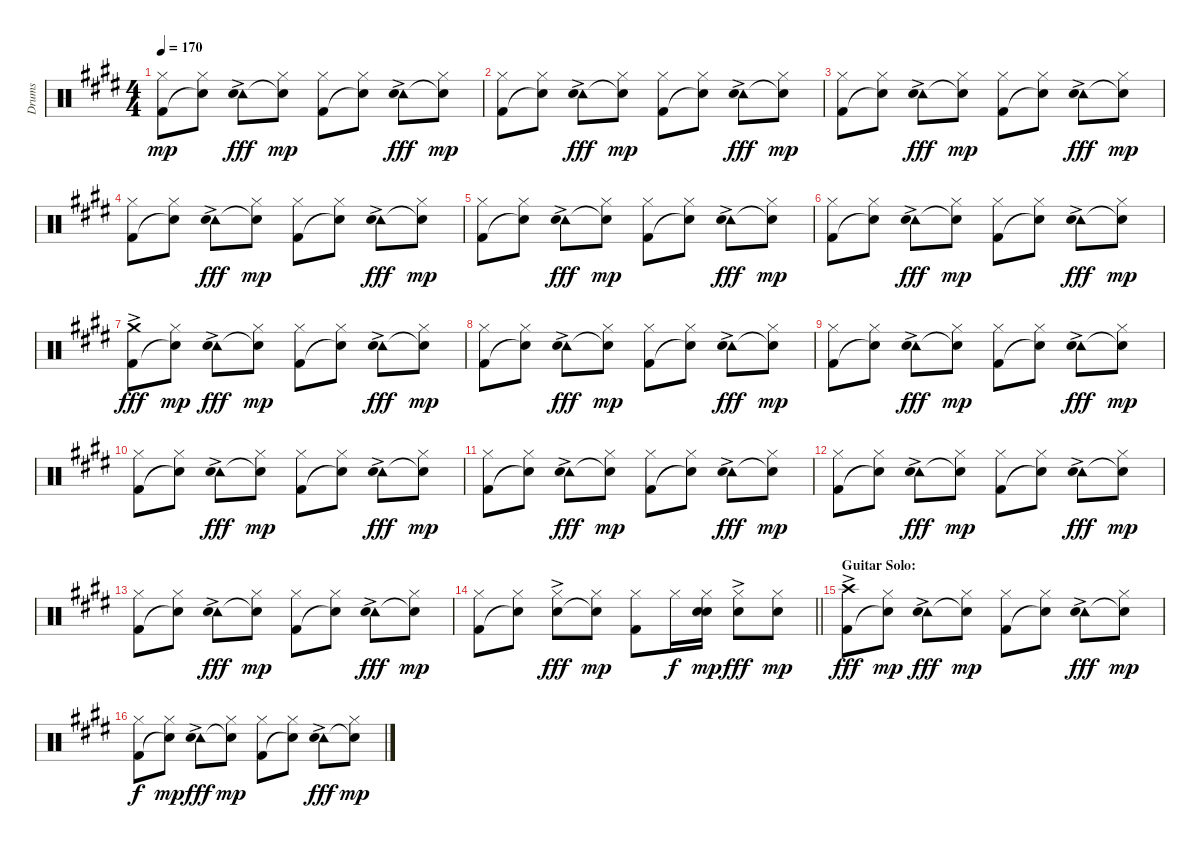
\track ("Drums" "Drums") {instrument percussion}
\staff {score}
\articulation defaults
\ts (4 4)
\tempo 170
\clef neutral
\ks c#minor
("Hi-Hat (closed)" "Kick (hit) 2").8{dy mp} ("Hi-Hat (closed)" "Snare (hit)"{t}).8 ("Tambourine (hit)"{ac} "Hand Clap (hit)").8{dy fff} ("Hi-Hat (closed)" "Snare (hit)"{t}).8{dy mp} ("Hi-Hat (closed)" "Kick (hit) 2").8 ("Hi-Hat (closed)" "Snare (hit)"{t}).8 ("Tambourine (hit)"{ac} "Hand Clap (hit)").8{dy fff} ("Hi-Hat (closed)" "Snare (hit)"{t}).8{dy mp} |
("Hi-Hat (closed)" "Kick (hit) 2").8 ("Hi-Hat (closed)" "Snare (hit)"{t}).8 ("Tambourine (hit)"{ac} "Hand Clap (hit)").8{dy fff} ("Hi-Hat (closed)" "Snare (hit)"{t}).8{dy mp} ("Hi-Hat (closed)" "Kick (hit) 2").8 ("Hi-Hat (closed)" "Snare (hit)"{t}).8 ("Tambourine (hit)"{ac} "Hand Clap (hit)").8{dy fff} ("Hi-Hat (closed)" "Snare (hit)"{t}).8{dy mp} |
("Hi-Hat (closed)" "Kick (hit) 2").8 ("Hi-Hat (closed)" "Snare (hit)"{t}).8 ("Tambourine (hit)"{ac} "Hand Clap (hit)").8{dy fff} ("Hi-Hat (closed)" "Snare (hit)"{t}).8{dy mp} ("Hi-Hat (closed)" "Kick (hit) 2").8 ("Hi-Hat (closed)" "Snare (hit)"{t}).8 ("Tambourine (hit)"{ac} "Hand Clap (hit)").8{dy fff} ("Hi-Hat (closed)" "Snare (hit)"{t}).8{dy mp} |
("Hi-Hat (closed)" "Kick (hit) 2").8 ("Hi-Hat (closed)" "Snare (hit)"{t}).8 ("Tambourine (hit)"{ac} "Hand Clap (hit)").8{dy fff} ("Hi-Hat (closed)" "Snare (hit)"{t}).8{dy mp} ("Hi-Hat (closed)" "Kick (hit) 2").8 ("Hi-Hat (closed)" "Snare (hit)"{t}).8 ("Tambourine (hit)"{ac} "Hand Clap (hit)").8{dy fff} ("Hi-Hat (closed)" "Snare (hit)"{t}).8{dy mp} |
("Hi-Hat (closed)" "Kick (hit) 2").8 ("Hi-Hat (closed)" "Snare (hit)"{t}).8 ("Tambourine (hit)"{ac} "Hand Clap (hit)").8{dy fff} ("Hi-Hat (closed)" "Snare (hit)"{t}).8{dy mp} ("Hi-Hat (closed)" "Kick (hit) 2").8 ("Hi-Hat (closed)" "Snare (hit)"{t}).8 ("Tambourine (hit)"{ac} "Hand Clap (hit)").8{dy fff} ("Hi-Hat (closed)" "Snare (hit)"{t}).8{dy mp} |
("Hi-Hat (closed)" "Kick (hit) 2").8 ("Hi-Hat (closed)" "Snare (hit)"{t}).8 ("Tambourine (hit)"{ac} "Hand Clap (hit)").8{dy fff} ("Hi-Hat (closed)" "Snare (hit)"{t}).8{dy mp} ("Hi-Hat (closed)" "Kick (hit) 2").8 ("Hi-Hat (closed)" "Snare (hit)"{t}).8 ("Tambourine (hit)"{ac} "Hand Clap (hit)").8{dy fff} ("Hi-Hat (closed)" "Snare (hit)"{t}).8{dy mp} |
("Crash medium (hit)"{ac} "Kick (hit) 2").8{dy fff} ("Hi-Hat (closed)" "Snare (hit)"{t}).8{dy mp} ("Tambourine (hit)"{ac} "Hand Clap (hit)").8{dy fff} ("Hi-Hat (closed)" "Snare (hit)"{t}).8{dy mp} ("Hi-Hat (closed)" "Kick (hit) 2").8 ("Hi-Hat (closed)" "Snare (hit)"{t}).8 ("Tambourine (hit)"{ac} "Hand Clap (hit)").8{dy fff} ("Hi-Hat (closed)" "Snare (hit)"{t}).8{dy mp} |
("Hi-Hat (closed)" "Kick (hit) 2").8 ("Hi-Hat (closed)" "Snare (hit)"{t}).8 ("Tambourine (hit)"{ac} "Hand Clap (hit)").8{dy fff} ("Hi-Hat (closed)" "Snare (hit)"{t}).8{dy mp} ("Hi-Hat (closed)" "Kick (hit) 2").8 ("Hi-Hat (closed)" "Snare (hit)"{t}).8 ("Tambourine (hit)"{ac} "Hand Clap (hit)").8{dy fff} ("Hi-Hat (closed)" "Snare (hit)"{t}).8{dy mp} |
("Hi-Hat (closed)" "Kick (hit) 2").8 ("Hi-Hat (closed)" "Snare (hit)"{t}).8 ("Tambourine (hit)"{ac} "Hand Clap (hit)").8{dy fff} ("Hi-Hat (closed)" "Snare (hit)"{t}).8{dy mp} ("Hi-Hat (closed)" "Kick (hit) 2").8 ("Hi-Hat (closed)" "Snare (hit)"{t}).8 ("Tambourine (hit)"{ac} "Hand Clap (hit)").8{dy fff} ("Hi-Hat (closed)" "Snare (hit)"{t}).8{dy mp} |
("Hi-Hat (closed)" "Kick (hit) 2").8 ("Hi-Hat (closed)" "Snare (hit)"{t}).8 ("Tambourine (hit)"{ac} "Hand Clap (hit)").8{dy fff} ("Hi-Hat (closed)" "Snare (hit)"{t}).8{dy mp} ("Hi-Hat (closed)" "Kick (hit) 2").8 ("Hi-Hat (closed)" "Snare (hit)"{t}).8 ("Tambourine (hit)"{ac} "Hand Clap (hit)").8{dy fff} ("Hi-Hat (closed)" "Snare (hit)"{t}).8{dy mp} |
("Hi-Hat (closed)" "Kick (hit) 2").8 ("Hi-Hat (closed)" "Snare (hit)"{t}).8 ("Tambourine (hit)"{ac} "Hand Clap (hit)").8{dy fff} ("Hi-Hat (closed)" "Snare (hit)"{t}).8{dy mp} ("Hi-Hat (closed)" "Kick (hit) 2").8 ("Hi-Hat (closed)" "Snare (hit)"{t}).8 ("Tambourine (hit)"{ac} "Hand Clap (hit)").8{dy fff} ("Hi-Hat (closed)" "Snare (hit)"{t}).8{dy mp} |
("Hi-Hat (closed)" "Kick (hit) 2").8 ("Hi-Hat (closed)" "Snare (hit)"{t}).8 ("Tambourine (hit)"{ac} "Hand Clap (hit)").8{dy fff} ("Hi-Hat (closed)" "Snare (hit)"{t}).8{dy mp} ("Hi-Hat (closed)" "Kick (hit) 2").8 ("Hi-Hat (closed)" "Snare (hit)"{t}).8 ("Tambourine (hit)"{ac} "Hand Clap (hit)").8{dy fff} ("Hi-Hat (closed)" "Snare (hit)"{t}).8{dy mp} |
("Hi-Hat (closed)" "Kick (hit) 2").8 ("Hi-Hat (closed)" "Snare (hit)"{t}).8 ("Tambourine (hit)"{ac} "Hand Clap (hit)").8{dy fff} ("Hi-Hat (closed)" "Snare (hit)"{t}).8{dy mp} ("Hi-Hat (closed)" "Kick (hit) 2").8 ("Hi-Hat (closed)" "Snare (hit)"{t}).8 ("Tambourine (hit)"{ac} "Hand Clap (hit)").8{dy fff} ("Hi-Hat (closed)" "Snare (hit)"{t}).8{dy mp} |
\barLineRight lightlight
("Hi-Hat (closed)" "Kick (hit) 2").8 ("Hi-Hat (closed)" "Snare (hit)"{t}).8 ("Hi-Hat (closed)"{ac} "Hand Clap (hit)").8{dy fff} ("Hi-Hat (closed)" "Snare (hit)"{t}).8{dy mp} ("Hi-Hat (closed)" "Kick (hit) 2").8 "Hi-Hat (closed)".16{dy f} ("Hi-Hat (closed)" "Hand Clap (hit)" "Snare (hit)").16{dy mp} ("Hi-Hat (closed)"{ac} "Hand Clap (hit)").8{dy fff} ("Hi-Hat (closed)" "Hand Clap (hit)").8{dy mp} |
\section ("" "Guitar Solo:")
("Crash high (hit)"{ac} "Kick (hit) 2").8{dy fff} ("Hi-Hat (closed)" "Snare (hit)"{t}).8{dy mp} ("Tambourine (hit)"{ac} "Hand Clap (hit)").8{dy fff} ("Hi-Hat (closed)" "Snare (hit)"{t}).8{dy mp} ("Hi-Hat (closed)" "Kick (hit) 2").8 ("Hi-Hat (closed)" "Snare (hit)"{t}).8 ("Tambourine (hit)"{ac} "Hand Clap (hit)").8{dy fff} ("Hi-Hat (closed)" "Snare (hit)"{t}).8{dy mp} |
("Hi-Hat (closed)" "Kick (hit) 2").8{dy f} ("Hi-Hat (closed)" "Snare (hit)"{t}).8{dy mp} ("Tambourine (hit)"{ac} "Hand Clap (hit)").8{dy fff} ("Hi-Hat (closed)" "Snare (hit)"{t}).8{dy mp} ("Hi-Hat (closed)" "Kick (hit) 2").8 ("Hi-Hat (closed)" "Snare (hit)"{t}).8 ("Tambourine (hit)"{ac} "Hand Clap (hit)").8{dy fff} ("Hi-Hat (closed)" "Snare (hit)"{t}).8{dy mp}
